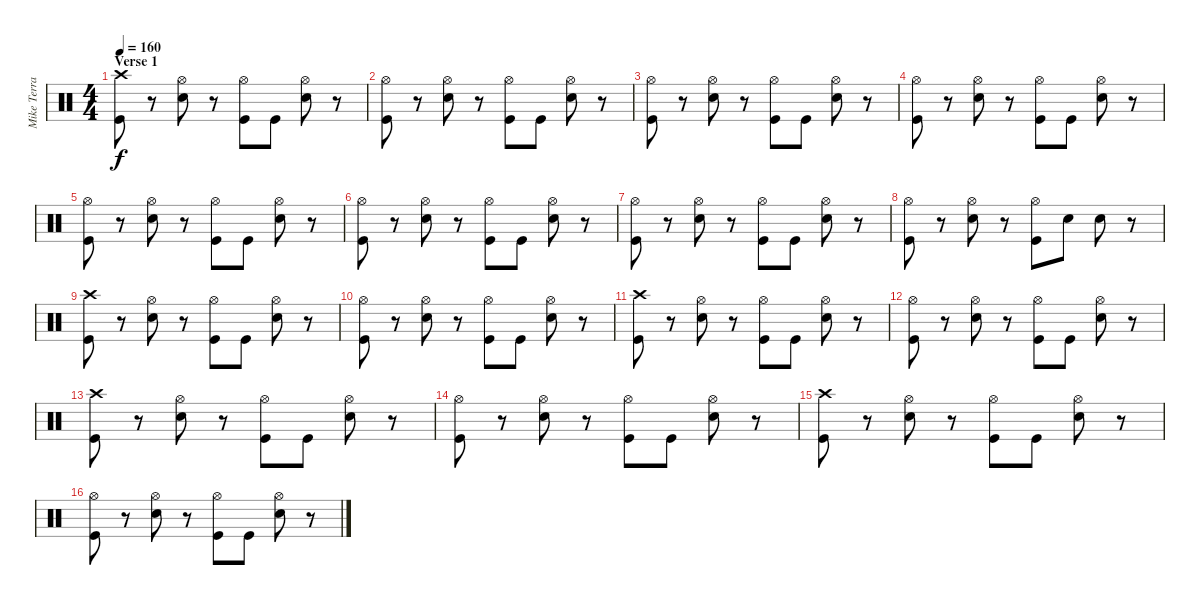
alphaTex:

\track ("Mike Terrana - Drums" "Mike Terra") {instrument percussion}
\staff {score}
\articulation defaults
\ts (4 4)
\section ("" "Verse 1")
\tempo 160
\clef neutral
\ks c
("Kick (hit)" "Crash high (hit)").8{dy f} r.8 ("Electric Snare (hit)" "Hi-Hat (open)").8 r.8 ("Kick (hit)" "Hi-Hat (open)").8 "Kick (hit)".8 ("Electric Snare (hit)" "Hi-Hat (open)").8 r.8 |
("Kick (hit)" "Hi-Hat (open)").8 r.8 ("Electric Snare (hit)" "Hi-Hat (open)").8 r.8 ("Kick (hit)" "Hi-Hat (open)").8 "Kick (hit)".8 ("Electric Snare (hit)" "Hi-Hat (open)").8 r.8 |
("Kick (hit)" "Hi-Hat (open)").8 r.8 ("Electric Snare (hit)" "Hi-Hat (open)").8 r.8 ("Kick (hit)" "Hi-Hat (open)").8 "Kick (hit)".8 ("Electric Snare (hit)" "Hi-Hat (open)").8 r.8 |
("Kick (hit)" "Hi-Hat (open)").8 r.8 ("Electric Snare (hit)" "Hi-Hat (open)").8 r.8 ("Kick (hit)" "Hi-Hat (open)").8 "Kick (hit)".8 ("Electric Snare (hit)" "Hi-Hat (open)").8 r.8 |
("Kick (hit)" "Hi-Hat (open)").8 r.8 ("Electric Snare (hit)" "Hi-Hat (open)").8 r.8 ("Kick (hit)" "Hi-Hat (open)").8 "Kick (hit)".8 ("Electric Snare (hit)" "Hi-Hat (open)").8 r.8 |
("Kick (hit)" "Hi-Hat (open)").8 r.8 ("Electric Snare (hit)" "Hi-Hat (open)").8 r.8 ("Kick (hit)" "Hi-Hat (open)").8 "Kick (hit)".8 ("Electric Snare (hit)" "Hi-Hat (open)").8 r.8 |
("Kick (hit)" "Hi-Hat (open)").8 r.8 ("Electric Snare (hit)" "Hi-Hat (open)").8 r.8 ("Kick (hit)" "Hi-Hat (open)").8 "Kick (hit)".8 ("Electric Snare (hit)" "Hi-Hat (open)").8 r.8 |
("Kick (hit)" "Hi-Hat (open)").8 r.8 ("Electric Snare (hit)" "Hi-Hat (open)").8 r.8 ("Kick (hit)" "Hi-Hat (open)").8 "Electric Snare (hit)".8 "Electric Snare (hit)".8 r.8 |
("Kick (hit)" "Crash high (hit)").8 r.8 ("Electric Snare (hit)" "Hi-Hat (open)").8 r.8 ("Kick (hit)" "Hi-Hat (open)").8 "Kick (hit)".8 ("Electric Snare (hit)" "Hi-Hat (open)").8 r.8 |
("Kick (hit)" "Hi-Hat (open)").8 r.8 ("Electric Snare (hit)" "Hi-Hat (open)").8 r.8 ("Kick (hit)" "Hi-Hat (open)").8 "Kick (hit)".8 ("Electric Snare (hit)" "Hi-Hat (open)").8 r.8 |
("Kick (hit)" "Crash high (hit)").8 r.8 ("Electric Snare (hit)" "Hi-Hat (open)").8 r.8 ("Kick (hit)" "Hi-Hat (open)").8 "Kick (hit)".8 ("Electric Snare (hit)" "Hi-Hat (open)").8 r.8 |
("Kick (hit)" "Hi-Hat (open)").8 r.8 ("Electric Snare (hit)" "Hi-Hat (open)").8 r.8 ("Kick (hit)" "Hi-Hat (open)").8 "Kick (hit)".8 ("Electric Snare (hit)" "Hi-Hat (open)").8 r.8 |
("Kick (hit)" "Crash high (hit)").8 r.8 ("Electric Snare (hit)" "Hi-Hat (open)").8 r.8 ("Kick (hit)" "Hi-Hat (open)").8 "Kick (hit)".8 ("Electric Snare (hit)" "Hi-Hat (open)").8 r.8 |
("Kick (hit)" "Hi-Hat (open)").8 r.8 ("Electric Snare (hit)" "Hi-Hat (open)").8 r.8 ("Kick (hit)" "Hi-Hat (open)").8 "Kick (hit)".8 ("Electric Snare (hit)" "Hi-Hat (open)").8 r.8 |
("Kick (hit)" "Crash high (hit)").8 r.8 ("Electric Snare (hit)" "Hi-Hat (open)").8 r.8 ("Kick (hit)" "Hi-Hat (open)").8 "Kick (hit)".8 ("Electric Snare (hit)" "Hi-Hat (open)").8 r.8 |
("Kick (hit)" "Hi-Hat (open)").8 r.8 ("Electric Snare (hit)" "Hi-Hat (open)").8 r.8 ("Kick (hit)" "Hi-Hat (open)").8 "Kick (hit)".8 ("Electric Snare (hit)" "Hi-Hat (open)").8 r.8
